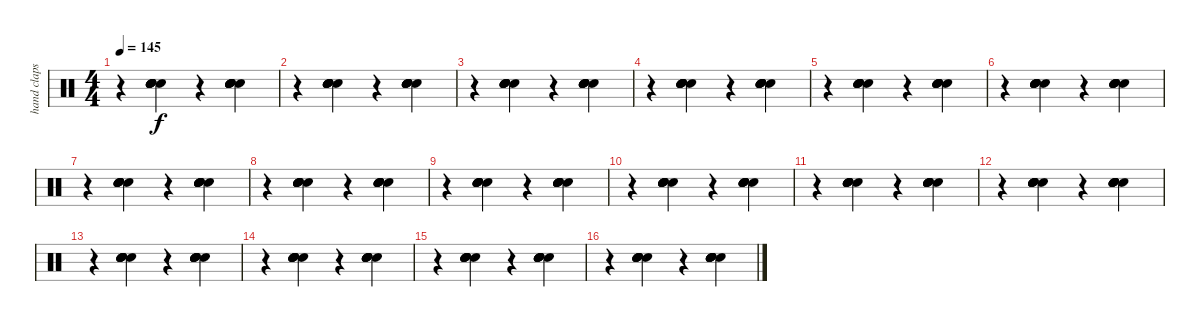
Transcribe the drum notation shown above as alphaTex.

\track ("hand claps" "hand claps") {instrument percussion}
\staff {score}
\articulation defaults
\ts (4 4)
\tempo 145
\clef neutral
\ks c
r.4{dy f} ("Hand Clap (hit)" "Hand Clap (hit)" "Hand Clap (hit)" "Hand Clap (hit)" "Hand Clap (hit)" "Hand Clap (hit)").4 r.4 ("Hand Clap (hit)" "Hand Clap (hit)" "Hand Clap (hit)" "Hand Clap (hit)" "Hand Clap (hit)" "Hand Clap (hit)").4 |
r.4 ("Hand Clap (hit)" "Hand Clap (hit)" "Hand Clap (hit)" "Hand Clap (hit)" "Hand Clap (hit)" "Hand Clap (hit)").4 r.4 ("Hand Clap (hit)" "Hand Clap (hit)" "Hand Clap (hit)" "Hand Clap (hit)" "Hand Clap (hit)" "Hand Clap (hit)").4 |
r.4 ("Hand Clap (hit)" "Hand Clap (hit)" "Hand Clap (hit)" "Hand Clap (hit)" "Hand Clap (hit)" "Hand Clap (hit)").4 r.4 ("Hand Clap (hit)" "Hand Clap (hit)" "Hand Clap (hit)" "Hand Clap (hit)" "Hand Clap (hit)" "Hand Clap (hit)").4 |
r.4 ("Hand Clap (hit)" "Hand Clap (hit)" "Hand Clap (hit)" "Hand Clap (hit)" "Hand Clap (hit)" "Hand Clap (hit)").4 r.4 ("Hand Clap (hit)" "Hand Clap (hit)" "Hand Clap (hit)" "Hand Clap (hit)" "Hand Clap (hit)" "Hand Clap (hit)").4 |
r.4 ("Hand Clap (hit)" "Hand Clap (hit)" "Hand Clap (hit)" "Hand Clap (hit)" "Hand Clap (hit)" "Hand Clap (hit)").4 r.4 ("Hand Clap (hit)" "Hand Clap (hit)" "Hand Clap (hit)" "Hand Clap (hit)" "Hand Clap (hit)" "Hand Clap (hit)").4 |
r.4 ("Hand Clap (hit)" "Hand Clap (hit)" "Hand Clap (hit)" "Hand Clap (hit)" "Hand Clap (hit)" "Hand Clap (hit)").4 r.4 ("Hand Clap (hit)" "Hand Clap (hit)" "Hand Clap (hit)" "Hand Clap (hit)" "Hand Clap (hit)" "Hand Clap (hit)").4 |
r.4 ("Hand Clap (hit)" "Hand Clap (hit)" "Hand Clap (hit)" "Hand Clap (hit)" "Hand Clap (hit)" "Hand Clap (hit)").4 r.4 ("Hand Clap (hit)" "Hand Clap (hit)" "Hand Clap (hit)" "Hand Clap (hit)" "Hand Clap (hit)" "Hand Clap (hit)").4 |
r.4 ("Hand Clap (hit)" "Hand Clap (hit)" "Hand Clap (hit)" "Hand Clap (hit)" "Hand Clap (hit)" "Hand Clap (hit)").4 r.4 ("Hand Clap (hit)" "Hand Clap (hit)" "Hand Clap (hit)" "Hand Clap (hit)" "Hand Clap (hit)" "Hand Clap (hit)").4 |
r.4 ("Hand Clap (hit)" "Hand Clap (hit)" "Hand Clap (hit)" "Hand Clap (hit)" "Hand Clap (hit)" "Hand Clap (hit)").4 r.4 ("Hand Clap (hit)" "Hand Clap (hit)" "Hand Clap (hit)" "Hand Clap (hit)" "Hand Clap (hit)" "Hand Clap (hit)").4 |
r.4 ("Hand Clap (hit)" "Hand Clap (hit)" "Hand Clap (hit)" "Hand Clap (hit)" "Hand Clap (hit)" "Hand Clap (hit)").4 r.4 ("Hand Clap (hit)" "Hand Clap (hit)" "Hand Clap (hit)" "Hand Clap (hit)" "Hand Clap (hit)" "Hand Clap (hit)").4 |
r.4 ("Hand Clap (hit)" "Hand Clap (hit)" "Hand Clap (hit)" "Hand Clap (hit)" "Hand Clap (hit)" "Hand Clap (hit)").4 r.4 ("Hand Clap (hit)" "Hand Clap (hit)" "Hand Clap (hit)" "Hand Clap (hit)" "Hand Clap (hit)" "Hand Clap (hit)").4 |
r.4 ("Hand Clap (hit)" "Hand Clap (hit)" "Hand Clap (hit)" "Hand Clap (hit)" "Hand Clap (hit)" "Hand Clap (hit)").4 r.4 ("Hand Clap (hit)" "Hand Clap (hit)" "Hand Clap (hit)" "Hand Clap (hit)" "Hand Clap (hit)" "Hand Clap (hit)").4 |
r.4 ("Hand Clap (hit)" "Hand Clap (hit)" "Hand Clap (hit)" "Hand Clap (hit)" "Hand Clap (hit)" "Hand Clap (hit)").4 r.4 ("Hand Clap (hit)" "Hand Clap (hit)" "Hand Clap (hit)" "Hand Clap (hit)" "Hand Clap (hit)" "Hand Clap (hit)").4 |
r.4 ("Hand Clap (hit)" "Hand Clap (hit)" "Hand Clap (hit)" "Hand Clap (hit)" "Hand Clap (hit)" "Hand Clap (hit)").4 r.4 ("Hand Clap (hit)" "Hand Clap (hit)" "Hand Clap (hit)" "Hand Clap (hit)" "Hand Clap (hit)" "Hand Clap (hit)").4 |
r.4 ("Hand Clap (hit)" "Hand Clap (hit)" "Hand Clap (hit)" "Hand Clap (hit)" "Hand Clap (hit)" "Hand Clap (hit)").4 r.4 ("Hand Clap (hit)" "Hand Clap (hit)" "Hand Clap (hit)" "Hand Clap (hit)" "Hand Clap (hit)" "Hand Clap (hit)").4 |
r.4 ("Hand Clap (hit)" "Hand Clap (hit)" "Hand Clap (hit)" "Hand Clap (hit)" "Hand Clap (hit)" "Hand Clap (hit)").4 r.4 ("Hand Clap (hit)" "Hand Clap (hit)" "Hand Clap (hit)" "Hand Clap (hit)" "Hand Clap (hit)" "Hand Clap (hit)").4
